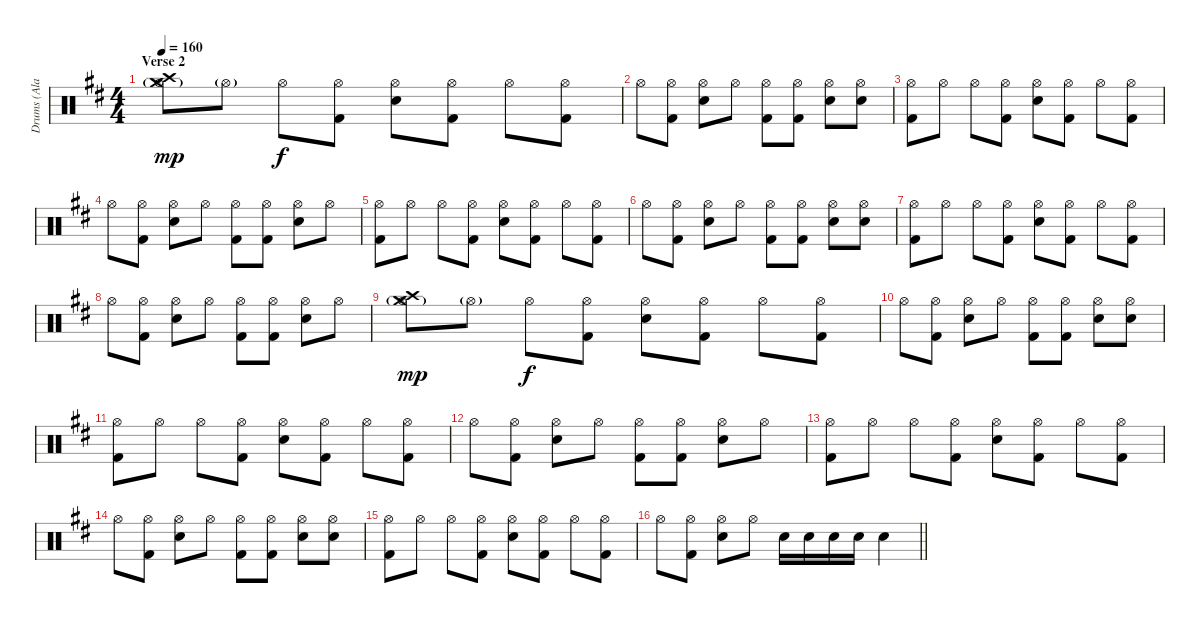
\track ("Drums (Ala Burns)" "Drums (Ala") {instrument percussion}
\staff {score}
\articulation defaults
\ts (4 4)
\section ("" "Verse 2")
\tempo 160
\clef neutral
\ks d
("Crash medium (hit)" "Crash high (hit)" "Hi-Hat (open)"{g}).8{dy mp} "Hi-Hat (open)"{g}.8 "Hi-Hat (open)".8{dy f} ("Hi-Hat (open)" "Kick (hit) 2").8 ("Snare (hit) 2" "Hi-Hat (open)").8 ("Hi-Hat (open)" "Kick (hit) 2").8 "Hi-Hat (open)".8 ("Hi-Hat (open)" "Kick (hit) 2").8 |
"Hi-Hat (open)".8 ("Hi-Hat (open)" "Kick (hit) 2").8 ("Snare (hit) 2" "Hi-Hat (open)").8 "Hi-Hat (open)".8 ("Hi-Hat (open)" "Kick (hit) 2").8 ("Hi-Hat (open)" "Kick (hit) 2").8 ("Snare (hit) 2" "Hi-Hat (open)").8 ("Snare (hit) 2" "Hi-Hat (open)").8 |
("Hi-Hat (open)" "Kick (hit) 2").8 "Hi-Hat (open)".8 "Hi-Hat (open)".8 ("Hi-Hat (open)" "Kick (hit) 2").8 ("Snare (hit) 2" "Hi-Hat (open)").8 ("Hi-Hat (open)" "Kick (hit) 2").8 "Hi-Hat (open)".8 ("Hi-Hat (open)" "Kick (hit) 2").8 |
"Hi-Hat (open)".8 ("Hi-Hat (open)" "Kick (hit) 2").8 ("Snare (hit) 2" "Hi-Hat (open)").8 "Hi-Hat (open)".8 ("Hi-Hat (open)" "Kick (hit) 2").8 ("Hi-Hat (open)" "Kick (hit) 2").8 ("Snare (hit) 2" "Hi-Hat (open)").8 "Hi-Hat (open)".8 |
("Hi-Hat (open)" "Kick (hit) 2").8 "Hi-Hat (open)".8 "Hi-Hat (open)".8 ("Hi-Hat (open)" "Kick (hit) 2").8 ("Snare (hit) 2" "Hi-Hat (open)").8 ("Hi-Hat (open)" "Kick (hit) 2").8 "Hi-Hat (open)".8 ("Hi-Hat (open)" "Kick (hit) 2").8 |
"Hi-Hat (open)".8 ("Hi-Hat (open)" "Kick (hit) 2").8 ("Snare (hit) 2" "Hi-Hat (open)").8 "Hi-Hat (open)".8 ("Hi-Hat (open)" "Kick (hit) 2").8 ("Hi-Hat (open)" "Kick (hit) 2").8 ("Snare (hit) 2" "Hi-Hat (open)").8 ("Snare (hit) 2" "Hi-Hat (open)").8 |
("Hi-Hat (open)" "Kick (hit) 2").8 "Hi-Hat (open)".8 "Hi-Hat (open)".8 ("Hi-Hat (open)" "Kick (hit) 2").8 ("Snare (hit) 2" "Hi-Hat (open)").8 ("Hi-Hat (open)" "Kick (hit) 2").8 "Hi-Hat (open)".8 ("Hi-Hat (open)" "Kick (hit) 2").8 |
"Hi-Hat (open)".8 ("Hi-Hat (open)" "Kick (hit) 2").8 ("Snare (hit) 2" "Hi-Hat (open)").8 "Hi-Hat (open)".8 ("Hi-Hat (open)" "Kick (hit) 2").8 ("Hi-Hat (open)" "Kick (hit) 2").8 ("Snare (hit) 2" "Hi-Hat (open)").8 "Hi-Hat (open)".8 |
("Crash medium (hit)" "Crash high (hit)" "Hi-Hat (open)"{g}).8{dy mp} "Hi-Hat (open)"{g}.8 "Hi-Hat (open)".8{dy f} ("Hi-Hat (open)" "Kick (hit) 2").8 ("Snare (hit) 2" "Hi-Hat (open)").8 ("Hi-Hat (open)" "Kick (hit) 2").8 "Hi-Hat (open)".8 ("Hi-Hat (open)" "Kick (hit) 2").8 |
"Hi-Hat (open)".8 ("Hi-Hat (open)" "Kick (hit) 2").8 ("Snare (hit) 2" "Hi-Hat (open)").8 "Hi-Hat (open)".8 ("Hi-Hat (open)" "Kick (hit) 2").8 ("Hi-Hat (open)" "Kick (hit) 2").8 ("Snare (hit) 2" "Hi-Hat (open)").8 ("Snare (hit) 2" "Hi-Hat (open)").8 |
("Hi-Hat (open)" "Kick (hit) 2").8 "Hi-Hat (open)".8 "Hi-Hat (open)".8 ("Hi-Hat (open)" "Kick (hit) 2").8 ("Snare (hit) 2" "Hi-Hat (open)").8 ("Hi-Hat (open)" "Kick (hit) 2").8 "Hi-Hat (open)".8 ("Hi-Hat (open)" "Kick (hit) 2").8 |
"Hi-Hat (open)".8 ("Hi-Hat (open)" "Kick (hit) 2").8 ("Snare (hit) 2" "Hi-Hat (open)").8 "Hi-Hat (open)".8 ("Hi-Hat (open)" "Kick (hit) 2").8 ("Hi-Hat (open)" "Kick (hit) 2").8 ("Snare (hit) 2" "Hi-Hat (open)").8 "Hi-Hat (open)".8 |
("Hi-Hat (open)" "Kick (hit) 2").8 "Hi-Hat (open)".8 "Hi-Hat (open)".8 ("Hi-Hat (open)" "Kick (hit) 2").8 ("Snare (hit) 2" "Hi-Hat (open)").8 ("Hi-Hat (open)" "Kick (hit) 2").8 "Hi-Hat (open)".8 ("Hi-Hat (open)" "Kick (hit) 2").8 |
"Hi-Hat (open)".8 ("Hi-Hat (open)" "Kick (hit) 2").8 ("Snare (hit) 2" "Hi-Hat (open)").8 "Hi-Hat (open)".8 ("Hi-Hat (open)" "Kick (hit) 2").8 ("Hi-Hat (open)" "Kick (hit) 2").8 ("Snare (hit) 2" "Hi-Hat (open)").8 ("Snare (hit) 2" "Hi-Hat (open)").8 |
("Hi-Hat (open)" "Kick (hit) 2").8 "Hi-Hat (open)".8 "Hi-Hat (open)".8 ("Hi-Hat (open)" "Kick (hit) 2").8 ("Snare (hit) 2" "Hi-Hat (open)").8 ("Hi-Hat (open)" "Kick (hit) 2").8 "Hi-Hat (open)".8 ("Hi-Hat (open)" "Kick (hit) 2").8 |
\barLineRight lightlight "Hi-Hat (open)".8
("Hi-Hat (open)" "Kick (hit) 2").8 ("Snare (hit) 2" "Hi-Hat (open)").8 "Hi-Hat (open)".8 "Snare (hit) 2".16 "Snare (hit) 2".16 "Snare (hit) 2".16 "Snare (hit) 2".16 "Snare (hit) 2".4
